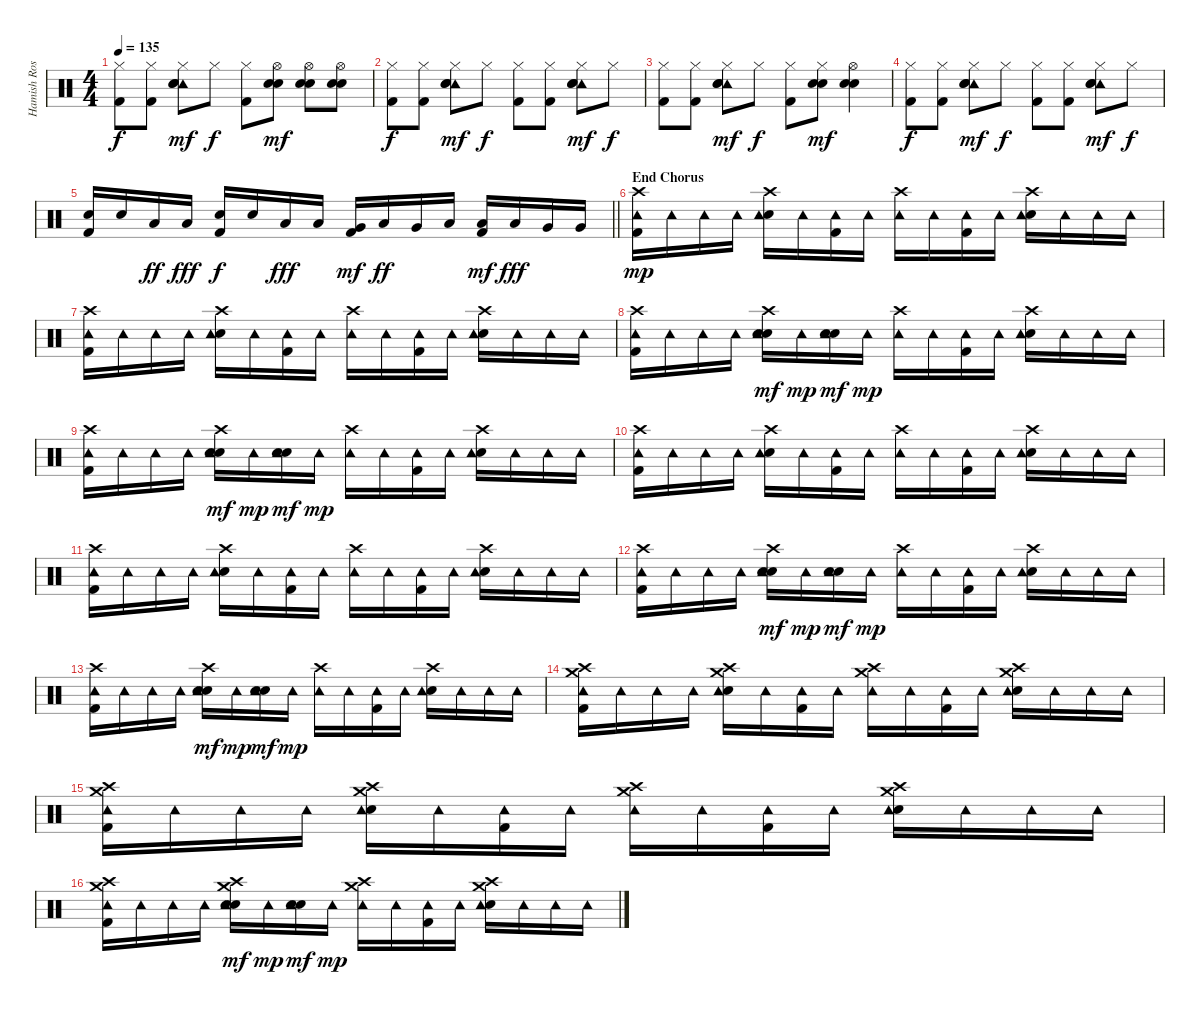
\track ("Hamish Rosser (Drums Track)" "Hamish Ros") {instrument percussion}
\staff {score}
\articulation defaults
\ts (4 4)
\tempo 135
\clef neutral
\ks c
("Hi-Hat (closed)" "Kick (hit) 2").8{dy f} ("Hi-Hat (closed)" "Kick (hit) 2").8 ("Hi-Hat (closed)" "Tambourine (hit)" "Electric Snare (hit)" "Hand Clap (hit)").8{dy mf} "Hi-Hat (closed)".8{dy f} ("Hi-Hat (closed)" "Kick (hit) 2").8 ("Hi-Hat (open)" "Electric Snare (hit)" "Hand Clap (hit)").8{dy mf} ("Hi-Hat (open)" "Electric Snare (hit)" "Hand Clap (hit)").8 ("Hi-Hat (open)" "Electric Snare (hit)" "Hand Clap (hit)").8 |
("Hi-Hat (closed)" "Kick (hit) 2").8{dy f} ("Hi-Hat (closed)" "Kick (hit) 2").8 ("Hi-Hat (closed)" "Tambourine (hit)" "Electric Snare (hit)" "Hand Clap (hit)").8{dy mf} "Hi-Hat (closed)".8{dy f} ("Hi-Hat (closed)" "Kick (hit) 2").8 ("Hi-Hat (closed)" "Kick (hit) 2").8 ("Hi-Hat (closed)" "Tambourine (hit)" "Electric Snare (hit)" "Hand Clap (hit)").8{dy mf} "Hi-Hat (closed)".8{dy f} |
("Hi-Hat (closed)" "Kick (hit) 2").8 ("Hi-Hat (closed)" "Kick (hit) 2").8 ("Hi-Hat (closed)" "Tambourine (hit)" "Electric Snare (hit)" "Hand Clap (hit)").8{dy mf} "Hi-Hat (closed)".8{dy f} ("Hi-Hat (closed)" "Kick (hit) 2").8 ("Hi-Hat (closed)" "Electric Snare (hit)" "Hand Clap (hit)").8{dy mf} ("Hi-Hat (open)" "Electric Snare (hit)" "Hand Clap (hit)").4 |
("Hi-Hat (closed)" "Kick (hit) 2").8{dy f} ("Hi-Hat (closed)" "Kick (hit) 2").8 ("Hi-Hat (closed)" "Tambourine (hit)" "Electric Snare (hit)" "Hand Clap (hit)").8{dy mf} "Hi-Hat (closed)".8{dy f} ("Hi-Hat (closed)" "Kick (hit) 2").8 ("Hi-Hat (closed)" "Kick (hit) 2").8 ("Hi-Hat (closed)" "Tambourine (hit)" "Electric Snare (hit)" "Hand Clap (hit)").8{dy mf} "Hi-Hat (closed)".8{dy f} |
\barLineRight lightlight
("Electric Snare (hit)" "Kick (hit) 2").16 "Electric Snare (hit)".16 "Low Tom (hit)".16{dy ff} "Low Tom (hit)".16{dy fff} ("Electric Snare (hit)" "Kick (hit) 2").16{dy f} "Electric Snare (hit)".16 "Low Tom (hit)".16{dy fff} "Low Tom (hit)".16 ("Very Low Tom (hit)" "Kick (hit) 2").16{dy mf} "Low Tom (hit)".16{dy ff} "Very Low Tom (hit)".16 "Low Tom (hit)".16 ("Low Tom (hit)" "Kick (hit) 2").16{dy mf} "Low Tom (hit)".16{dy fff} "Very Low Tom (hit)".16 "Very Low Tom (hit)".16 |
\section ("" "End Chorus")
("Crash high (hit)" "Tambourine (hit)" "Kick (hit) 2").16{dy mp} "Tambourine (hit)".16 "Tambourine (hit)".16 "Tambourine (hit)".16 ("Crash high (hit)" "Electric Snare (hit)" "Tambourine (hit)").16 "Tambourine (hit)".16 ("Tambourine (hit)" "Kick (hit) 2").16 "Tambourine (hit)".16 ("Crash high (hit)" "Tambourine (hit)").16 "Tambourine (hit)".16 ("Tambourine (hit)" "Kick (hit) 2").16 "Tambourine (hit)".16 ("Crash high (hit)" "Electric Snare (hit)" "Tambourine (hit)").16 "Tambourine (hit)".16 "Tambourine (hit)".16 "Tambourine (hit)".16 |
("Crash high (hit)" "Tambourine (hit)" "Kick (hit) 2").16 "Tambourine (hit)".16 "Tambourine (hit)".16 "Tambourine (hit)".16 ("Crash high (hit)" "Electric Snare (hit)" "Tambourine (hit)").16 "Tambourine (hit)".16 ("Tambourine (hit)" "Kick (hit) 2").16 "Tambourine (hit)".16 ("Crash high (hit)" "Tambourine (hit)").16 "Tambourine (hit)".16 ("Tambourine (hit)" "Kick (hit) 2").16 "Tambourine (hit)".16 ("Crash high (hit)" "Electric Snare (hit)" "Tambourine (hit)").16 "Tambourine (hit)".16 "Tambourine (hit)".16 "Tambourine (hit)".16 |
("Crash high (hit)" "Tambourine (hit)" "Kick (hit) 2").16 "Tambourine (hit)".16 "Tambourine (hit)".16 "Tambourine (hit)".16 ("Crash high (hit)" "Electric Snare (hit)" "Tambourine (hit)" "Hand Clap (hit)").16{dy mf} "Tambourine (hit)".16{dy mp} ("Electric Snare (hit)" "Tambourine (hit)" "Hand Clap (hit)").16{dy mf} "Tambourine (hit)".16{dy mp} ("Crash high (hit)" "Tambourine (hit)").16 "Tambourine (hit)".16 ("Tambourine (hit)" "Kick (hit) 2").16 "Tambourine (hit)".16 ("Crash high (hit)" "Electric Snare (hit)" "Tambourine (hit)").16 "Tambourine (hit)".16 "Tambourine (hit)".16 "Tambourine (hit)".16 |
("Crash high (hit)" "Tambourine (hit)" "Kick (hit) 2").16 "Tambourine (hit)".16 "Tambourine (hit)".16 "Tambourine (hit)".16 ("Crash high (hit)" "Electric Snare (hit)" "Tambourine (hit)" "Hand Clap (hit)").16{dy mf} "Tambourine (hit)".16{dy mp} ("Electric Snare (hit)" "Tambourine (hit)" "Hand Clap (hit)").16{dy mf} "Tambourine (hit)".16{dy mp} ("Crash high (hit)" "Tambourine (hit)").16 "Tambourine (hit)".16 ("Tambourine (hit)" "Kick (hit) 2").16 "Tambourine (hit)".16 ("Crash high (hit)" "Electric Snare (hit)" "Tambourine (hit)").16 "Tambourine (hit)".16 "Tambourine (hit)".16 "Tambourine (hit)".16 |
("Crash high (hit)" "Tambourine (hit)" "Kick (hit) 2").16 "Tambourine (hit)".16 "Tambourine (hit)".16 "Tambourine (hit)".16 ("Crash high (hit)" "Electric Snare (hit)" "Tambourine (hit)").16 "Tambourine (hit)".16 ("Tambourine (hit)" "Kick (hit) 2").16 "Tambourine (hit)".16 ("Crash high (hit)" "Tambourine (hit)").16 "Tambourine (hit)".16 ("Tambourine (hit)" "Kick (hit) 2").16 "Tambourine (hit)".16 ("Crash high (hit)" "Electric Snare (hit)" "Tambourine (hit)").16 "Tambourine (hit)".16 "Tambourine (hit)".16 "Tambourine (hit)".16 |
("Crash high (hit)" "Tambourine (hit)" "Kick (hit) 2").16 "Tambourine (hit)".16 "Tambourine (hit)".16 "Tambourine (hit)".16 ("Crash high (hit)" "Electric Snare (hit)" "Tambourine (hit)").16 "Tambourine (hit)".16 ("Tambourine (hit)" "Kick (hit) 2").16 "Tambourine (hit)".16 ("Crash high (hit)" "Tambourine (hit)").16 "Tambourine (hit)".16 ("Tambourine (hit)" "Kick (hit) 2").16 "Tambourine (hit)".16 ("Crash high (hit)" "Electric Snare (hit)" "Tambourine (hit)").16 "Tambourine (hit)".16 "Tambourine (hit)".16 "Tambourine (hit)".16 |
("Crash high (hit)" "Tambourine (hit)" "Kick (hit) 2").16 "Tambourine (hit)".16 "Tambourine (hit)".16 "Tambourine (hit)".16 ("Crash high (hit)" "Electric Snare (hit)" "Tambourine (hit)" "Hand Clap (hit)").16{dy mf} "Tambourine (hit)".16{dy mp} ("Electric Snare (hit)" "Tambourine (hit)" "Hand Clap (hit)").16{dy mf} "Tambourine (hit)".16{dy mp} ("Crash high (hit)" "Tambourine (hit)").16 "Tambourine (hit)".16 ("Tambourine (hit)" "Kick (hit) 2").16 "Tambourine (hit)".16 ("Crash high (hit)" "Electric Snare (hit)" "Tambourine (hit)").16 "Tambourine (hit)".16 "Tambourine (hit)".16 "Tambourine (hit)".16 |
("Crash high (hit)" "Tambourine (hit)" "Kick (hit) 2").16 "Tambourine (hit)".16 "Tambourine (hit)".16 "Tambourine (hit)".16 ("Crash high (hit)" "Electric Snare (hit)" "Tambourine (hit)" "Hand Clap (hit)").16{dy mf} "Tambourine (hit)".16{dy mp} ("Electric Snare (hit)" "Tambourine (hit)" "Hand Clap (hit)").16{dy mf} "Tambourine (hit)".16{dy mp} ("Crash high (hit)" "Tambourine (hit)").16 "Tambourine (hit)".16 ("Tambourine (hit)" "Kick (hit) 2").16 "Tambourine (hit)".16 ("Crash high (hit)" "Electric Snare (hit)" "Tambourine (hit)").16 "Tambourine (hit)".16 "Tambourine (hit)".16 "Tambourine (hit)".16 |
("Crash high (hit)" "Crash medium (hit)" "Tambourine (hit)" "Kick (hit) 2").16 "Tambourine (hit)".16 "Tambourine (hit)".16 "Tambourine (hit)".16 ("Crash high (hit)" "Crash medium (hit)" "Electric Snare (hit)" "Tambourine (hit)").16 "Tambourine (hit)".16 ("Tambourine (hit)" "Kick (hit) 2").16 "Tambourine (hit)".16 ("Crash high (hit)" "Crash medium (hit)" "Tambourine (hit)").16 "Tambourine (hit)".16 ("Tambourine (hit)" "Kick (hit) 2").16 "Tambourine (hit)".16 ("Crash high (hit)" "Crash medium (hit)" "Electric Snare (hit)" "Tambourine (hit)").16 "Tambourine (hit)".16 "Tambourine (hit)".16 "Tambourine (hit)".16 |
("Crash high (hit)" "Crash medium (hit)" "Tambourine (hit)" "Kick (hit) 2").16 "Tambourine (hit)".16 "Tambourine (hit)".16 "Tambourine (hit)".16 ("Crash high (hit)" "Crash medium (hit)" "Electric Snare (hit)" "Tambourine (hit)").16 "Tambourine (hit)".16 ("Tambourine (hit)" "Kick (hit) 2").16 "Tambourine (hit)".16 ("Crash high (hit)" "Crash medium (hit)" "Tambourine (hit)").16 "Tambourine (hit)".16 ("Tambourine (hit)" "Kick (hit) 2").16 "Tambourine (hit)".16 ("Crash high (hit)" "Crash medium (hit)" "Electric Snare (hit)" "Tambourine (hit)").16 "Tambourine (hit)".16 "Tambourine (hit)".16 "Tambourine (hit)".16 |
("Crash high (hit)" "Crash medium (hit)" "Tambourine (hit)" "Kick (hit) 2").16 "Tambourine (hit)".16 "Tambourine (hit)".16 "Tambourine (hit)".16 ("Crash high (hit)" "Crash medium (hit)" "Electric Snare (hit)" "Tambourine (hit)" "Hand Clap (hit)").16{dy mf} "Tambourine (hit)".16{dy mp} ("Electric Snare (hit)" "Tambourine (hit)" "Hand Clap (hit)").16{dy mf} "Tambourine (hit)".16{dy mp} ("Crash high (hit)" "Crash medium (hit)" "Tambourine (hit)").16 "Tambourine (hit)".16 ("Tambourine (hit)" "Kick (hit) 2").16 "Tambourine (hit)".16 ("Crash high (hit)" "Crash medium (hit)" "Electric Snare (hit)" "Tambourine (hit)").16 "Tambourine (hit)".16 "Tambourine (hit)".16 "Tambourine (hit)".16
